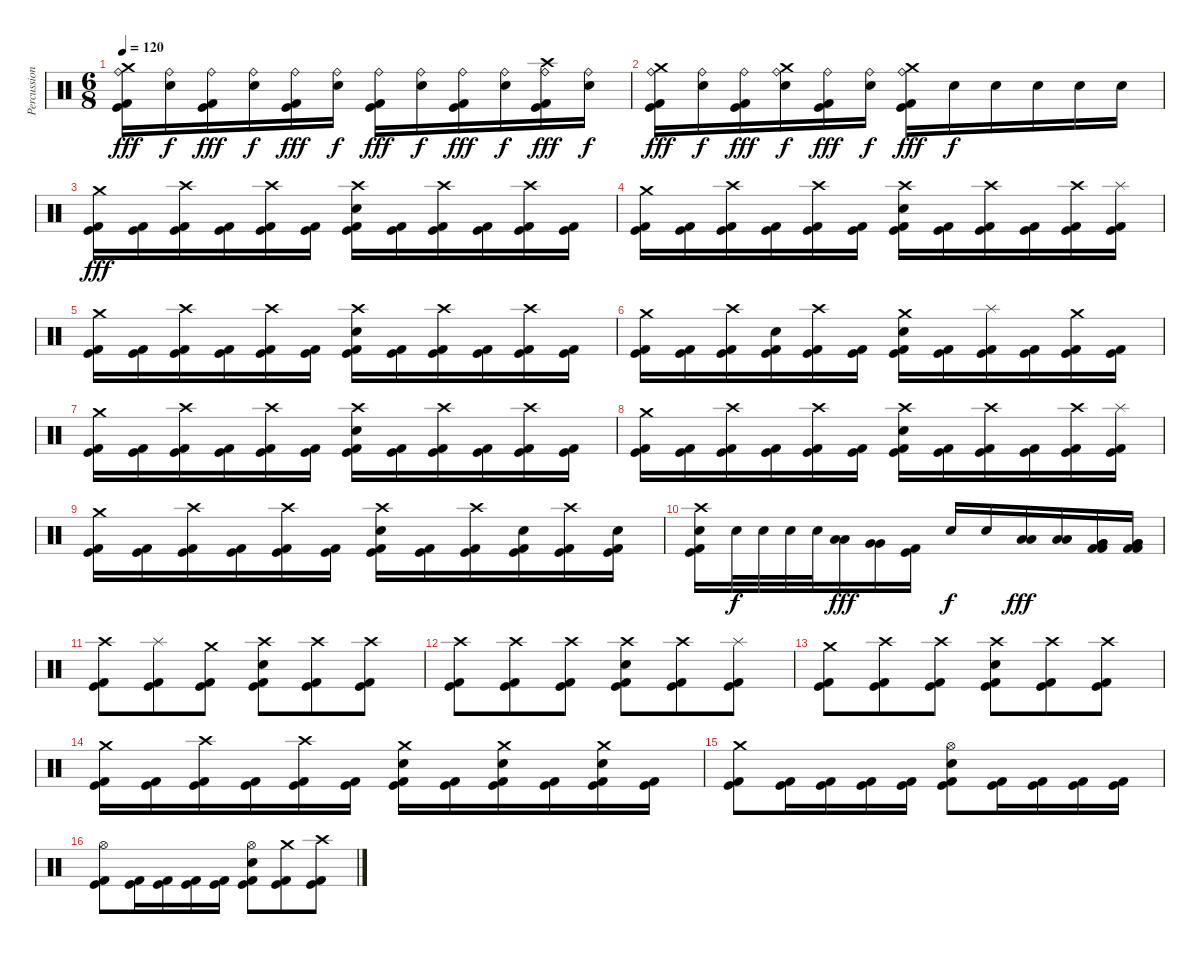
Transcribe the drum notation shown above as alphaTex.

\track ("Percussion" "Percussion") {instrument percussion}
\staff {score}
\articulation defaults
\ts (6 8)
\tempo 120
\clef neutral
\ks c
("Crash medium (hit)" "Ride (bell)" "Kick (hit)" "Kick (hit) 2").16{dy fff} ("Ride (bell)" "Electric Snare (hit)").16{dy f} ("Ride (bell)" "Kick (hit)" "Kick (hit) 2").16{dy fff} ("Ride (bell)" "Electric Snare (hit)").16{dy f} ("Ride (bell)" "Kick (hit)" "Kick (hit) 2").16{dy fff} ("Ride (bell)" "Electric Snare (hit)").16{dy f} ("Ride (bell)" "Kick (hit)" "Kick (hit) 2").16{dy fff} ("Ride (bell)" "Electric Snare (hit)").16{dy f} ("Ride (bell)" "Kick (hit)" "Kick (hit) 2").16{dy fff} ("Ride (bell)" "Electric Snare (hit)").16{dy f} ("Crash high (hit)" "Ride (bell)" "Kick (hit)" "Kick (hit) 2").16{dy fff} ("Ride (bell)" "Electric Snare (hit)").16{dy f} |
("Crash medium (hit)" "Ride (bell)" "Kick (hit)" "Kick (hit) 2").16{dy fff} ("Ride (bell)" "Electric Snare (hit)").16{dy f} ("Ride (bell)" "Kick (hit)" "Kick (hit) 2").16{dy fff} ("Crash medium (hit)" "Ride (bell)" "Electric Snare (hit)").16{dy f} ("Ride (bell)" "Kick (hit)" "Kick (hit) 2").16{dy fff} ("Ride (bell)" "Electric Snare (hit)").16{dy f} ("Crash medium (hit)" "Ride (bell)" "Kick (hit)" "Kick (hit) 2").16{dy fff} "Electric Snare (hit)".16{dy f} "Electric Snare (hit)".16 "Electric Snare (hit)".16 "Electric Snare (hit)".16 "Electric Snare (hit)".16 |
("Crash medium (hit)" "Kick (hit)" "Kick (hit) 2").16{dy fff} ("Kick (hit)" "Kick (hit) 2").16 ("Crash high (hit)" "Kick (hit)" "Kick (hit) 2").16 ("Kick (hit)" "Kick (hit) 2").16 ("Crash high (hit)" "Kick (hit)" "Kick (hit) 2").16 ("Kick (hit)" "Kick (hit) 2").16 ("Crash high (hit)" "Electric Snare (hit)" "Kick (hit)" "Kick (hit) 2").16 ("Kick (hit)" "Kick (hit) 2").16 ("Crash high (hit)" "Kick (hit)" "Kick (hit) 2").16 ("Kick (hit)" "Kick (hit) 2").16 ("Crash high (hit)" "Kick (hit)" "Kick (hit) 2").16 ("Kick (hit)" "Kick (hit) 2").16 |
("Crash medium (hit)" "Kick (hit)" "Kick (hit) 2").16 ("Kick (hit)" "Kick (hit) 2").16 ("Crash high (hit)" "Kick (hit)" "Kick (hit) 2").16 ("Kick (hit)" "Kick (hit) 2").16 ("Crash high (hit)" "Kick (hit)" "Kick (hit) 2").16 ("Kick (hit)" "Kick (hit) 2").16 ("Crash high (hit)" "Electric Snare (hit)" "Kick (hit)" "Kick (hit) 2").16 ("Kick (hit)" "Kick (hit) 2").16 ("Crash high (hit)" "Kick (hit)" "Kick (hit) 2").16 ("Kick (hit)" "Kick (hit) 2").16 ("Crash high (hit)" "Kick (hit)" "Kick (hit) 2").16 ("Splash (hit)" "Kick (hit)" "Kick (hit) 2").16 |
("Crash medium (hit)" "Kick (hit)" "Kick (hit) 2").16 ("Kick (hit)" "Kick (hit) 2").16 ("Crash high (hit)" "Kick (hit)" "Kick (hit) 2").16 ("Kick (hit)" "Kick (hit) 2").16 ("Crash high (hit)" "Kick (hit)" "Kick (hit) 2").16 ("Kick (hit)" "Kick (hit) 2").16 ("Crash high (hit)" "Electric Snare (hit)" "Kick (hit)" "Kick (hit) 2").16 ("Kick (hit)" "Kick (hit) 2").16 ("Crash high (hit)" "Kick (hit)" "Kick (hit) 2").16 ("Kick (hit)" "Kick (hit) 2").16 ("Crash high (hit)" "Kick (hit)" "Kick (hit) 2").16 ("Kick (hit)" "Kick (hit) 2").16 |
("Crash medium (hit)" "Kick (hit)" "Kick (hit) 2").16 ("Kick (hit)" "Kick (hit) 2").16 ("Crash high (hit)" "Kick (hit)" "Kick (hit) 2").16 ("Electric Snare (hit)" "Kick (hit)" "Kick (hit) 2").16 ("Crash high (hit)" "Kick (hit)" "Kick (hit) 2").16 ("Kick (hit)" "Kick (hit) 2").16 ("Crash medium (hit)" "Electric Snare (hit)" "Kick (hit)" "Kick (hit) 2").16 ("Kick (hit)" "Kick (hit) 2").16 ("Splash (hit)" "Kick (hit)" "Kick (hit) 2").16 ("Kick (hit)" "Kick (hit) 2").16 ("Crash medium (hit)" "Kick (hit)" "Kick (hit) 2").16 ("Kick (hit)" "Kick (hit) 2").16 |
("Crash medium (hit)" "Kick (hit)" "Kick (hit) 2").16 ("Kick (hit)" "Kick (hit) 2").16 ("Crash high (hit)" "Kick (hit)" "Kick (hit) 2").16 ("Kick (hit)" "Kick (hit) 2").16 ("Crash high (hit)" "Kick (hit)" "Kick (hit) 2").16 ("Kick (hit)" "Kick (hit) 2").16 ("Crash high (hit)" "Electric Snare (hit)" "Kick (hit)" "Kick (hit) 2").16 ("Kick (hit)" "Kick (hit) 2").16 ("Crash high (hit)" "Kick (hit)" "Kick (hit) 2").16 ("Kick (hit)" "Kick (hit) 2").16 ("Crash high (hit)" "Kick (hit)" "Kick (hit) 2").16 ("Kick (hit)" "Kick (hit) 2").16 |
("Crash medium (hit)" "Kick (hit)" "Kick (hit) 2").16 ("Kick (hit)" "Kick (hit) 2").16 ("Crash high (hit)" "Kick (hit)" "Kick (hit) 2").16 ("Kick (hit)" "Kick (hit) 2").16 ("Crash high (hit)" "Kick (hit)" "Kick (hit) 2").16 ("Kick (hit)" "Kick (hit) 2").16 ("Crash high (hit)" "Electric Snare (hit)" "Kick (hit)" "Kick (hit) 2").16 ("Kick (hit)" "Kick (hit) 2").16 ("Crash high (hit)" "Kick (hit)" "Kick (hit) 2").16 ("Kick (hit)" "Kick (hit) 2").16 ("Crash high (hit)" "Kick (hit)" "Kick (hit) 2").16 ("Splash (hit)" "Kick (hit)" "Kick (hit) 2").16 |
("Crash medium (hit)" "Kick (hit)" "Kick (hit) 2").16 ("Kick (hit)" "Kick (hit) 2").16 ("Crash high (hit)" "Kick (hit)" "Kick (hit) 2").16 ("Kick (hit)" "Kick (hit) 2").16 ("Crash high (hit)" "Kick (hit)" "Kick (hit) 2").16 ("Kick (hit)" "Kick (hit) 2").16 ("Crash high (hit)" "Electric Snare (hit)" "Kick (hit)" "Kick (hit) 2").16 ("Kick (hit)" "Kick (hit) 2").16 ("Crash high (hit)" "Kick (hit)" "Kick (hit) 2").16 ("Electric Snare (hit)" "Kick (hit)" "Kick (hit) 2").16 ("Crash high (hit)" "Kick (hit)" "Kick (hit) 2").16 ("Electric Snare (hit)" "Kick (hit)" "Kick (hit) 2").16 |
("Crash high (hit)" "Electric Snare (hit)" "Kick (hit)" "Kick (hit) 2").16 "Electric Snare (hit)".32{dy f} "Electric Snare (hit)".32 "Electric Snare (hit)".32 "Electric Snare (hit)".32 ("Low Tom (hit)" "Low Tom (hit)").16{dy fff} ("Very Low Tom (hit)" "Very Low Tom (hit)").16 ("Kick (hit)" "Kick (hit) 2").16 "Electric Snare (hit)".16{dy f} "Electric Snare (hit)".16 ("Low Tom (hit)" "Low Tom (hit)").16{dy fff} ("Low Tom (hit)" "Low Tom (hit)").16 ("Very Low Tom (hit)" "Very Low Tom (hit)" "Kick (hit) 2" "Kick (hit) 2").16 ("Very Low Tom (hit)" "Very Low Tom (hit)" "Kick (hit) 2" "Kick (hit) 2").16 |
("Crash high (hit)" "Kick (hit)" "Kick (hit) 2").8 ("Splash (hit)" "Kick (hit)" "Kick (hit) 2").8 ("Crash medium (hit)" "Kick (hit)" "Kick (hit) 2").8 ("Crash high (hit)" "Electric Snare (hit)" "Kick (hit)" "Kick (hit) 2").8 ("Crash high (hit)" "Kick (hit)" "Kick (hit) 2").8 ("Crash high (hit)" "Kick (hit)" "Kick (hit) 2").8 |
("Crash high (hit)" "Kick (hit)" "Kick (hit) 2").8 ("Crash high (hit)" "Kick (hit)" "Kick (hit) 2").8 ("Crash high (hit)" "Kick (hit)" "Kick (hit) 2").8 ("Crash high (hit)" "Electric Snare (hit)" "Kick (hit)" "Kick (hit) 2").8 ("Crash high (hit)" "Kick (hit)" "Kick (hit) 2").8 ("Splash (hit)" "Kick (hit)" "Kick (hit) 2").8 |
("Crash medium (hit)" "Kick (hit)" "Kick (hit) 2").8 ("Crash high (hit)" "Kick (hit)" "Kick (hit) 2").8 ("Crash high (hit)" "Kick (hit)" "Kick (hit) 2").8 ("Crash high (hit)" "Electric Snare (hit)" "Kick (hit)" "Kick (hit) 2").8 ("Crash high (hit)" "Kick (hit)" "Kick (hit) 2").8 ("Crash high (hit)" "Kick (hit)" "Kick (hit) 2").8 |
("Crash medium (hit)" "Kick (hit)" "Kick (hit) 2").16 ("Kick (hit)" "Kick (hit) 2").16 ("Crash high (hit)" "Kick (hit)" "Kick (hit) 2").16 ("Kick (hit)" "Kick (hit) 2").16 ("Crash high (hit)" "Kick (hit)" "Kick (hit) 2").16 ("Kick (hit)" "Kick (hit) 2").16 ("Crash medium (hit)" "Electric Snare (hit)" "Kick (hit)" "Kick (hit) 2").16 ("Kick (hit)" "Kick (hit) 2").16 ("Crash medium (hit)" "Electric Snare (hit)" "Kick (hit)" "Kick (hit) 2").16 ("Kick (hit)" "Kick (hit) 2").16 ("Crash medium (hit)" "Electric Snare (hit)" "Kick (hit)" "Kick (hit) 2").16 ("Kick (hit)" "Kick (hit) 2").16 |
("Crash medium (hit)" "Kick (hit)" "Kick (hit) 2").8 ("Kick (hit)" "Kick (hit) 2").16 ("Kick (hit)" "Kick (hit) 2").16 ("Kick (hit)" "Kick (hit) 2").16 ("Kick (hit)" "Kick (hit) 2").16 ("Hi-Hat (open)" "Electric Snare (hit)" "Kick (hit)" "Kick (hit) 2").8 ("Kick (hit)" "Kick (hit) 2").16 ("Kick (hit)" "Kick (hit) 2").16 ("Kick (hit)" "Kick (hit) 2").16 ("Kick (hit)" "Kick (hit) 2").16 |
("Hi-Hat (open)" "Kick (hit)" "Kick (hit) 2").8 ("Kick (hit)" "Kick (hit) 2").16 ("Kick (hit)" "Kick (hit) 2").16 ("Kick (hit)" "Kick (hit) 2").16 ("Kick (hit)" "Kick (hit) 2").16 ("Hi-Hat (open)" "Electric Snare (hit)" "Kick (hit)" "Kick (hit) 2").8 ("Crash medium (hit)" "Kick (hit)" "Kick (hit) 2").8 ("Crash high (hit)" "Kick (hit)" "Kick (hit) 2").8
